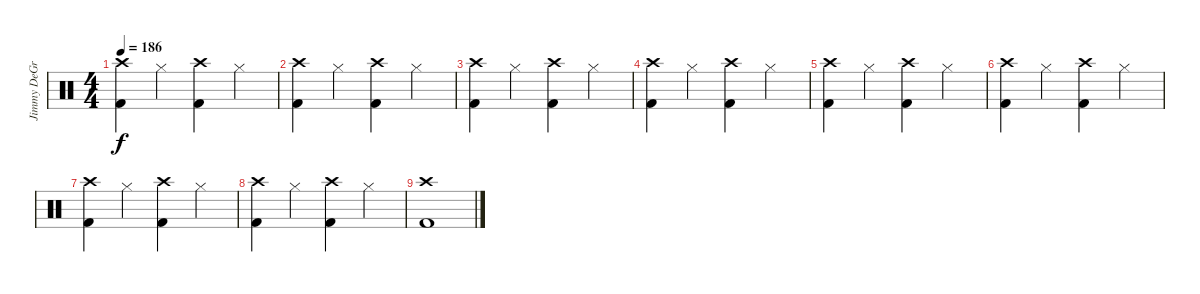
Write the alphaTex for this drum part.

\track ("Jimmy DeGrasso" "Jimmy DeGr") {instrument percussion}
\staff {score}
\articulation defaults
\ts (4 4)
\tempo 186
\clef neutral
\ks c
("Crash high (hit)" "Kick (hit) 2").4{dy f} "Hi-Hat (closed)".4 ("Crash high (hit)" "Kick (hit) 2").4 "Hi-Hat (closed)".4 |
("Crash high (hit)" "Kick (hit) 2").4 "Hi-Hat (closed)".4 ("Crash high (hit)" "Kick (hit) 2").4 "Hi-Hat (closed)".4 |
("Crash high (hit)" "Kick (hit) 2").4 "Hi-Hat (closed)".4 ("Crash high (hit)" "Kick (hit) 2").4 "Hi-Hat (closed)".4 |
("Crash high (hit)" "Kick (hit) 2").4 "Hi-Hat (closed)".4 ("Crash high (hit)" "Kick (hit) 2").4 "Hi-Hat (closed)".4 |
("Crash high (hit)" "Kick (hit) 2").4 "Hi-Hat (closed)".4 ("Crash high (hit)" "Kick (hit) 2").4 "Hi-Hat (closed)".4 |
("Crash high (hit)" "Kick (hit) 2").4 "Hi-Hat (closed)".4 ("Crash high (hit)" "Kick (hit) 2").4 "Hi-Hat (closed)".4 |
("Crash high (hit)" "Kick (hit) 2").4 "Hi-Hat (closed)".4 ("Crash high (hit)" "Kick (hit) 2").4 "Hi-Hat (closed)".4 |
("Crash high (hit)" "Kick (hit) 2").4 "Hi-Hat (closed)".4 ("Crash high (hit)" "Kick (hit) 2").4 "Hi-Hat (closed)".4 |
("Crash high (hit)" "Kick (hit) 2").1
